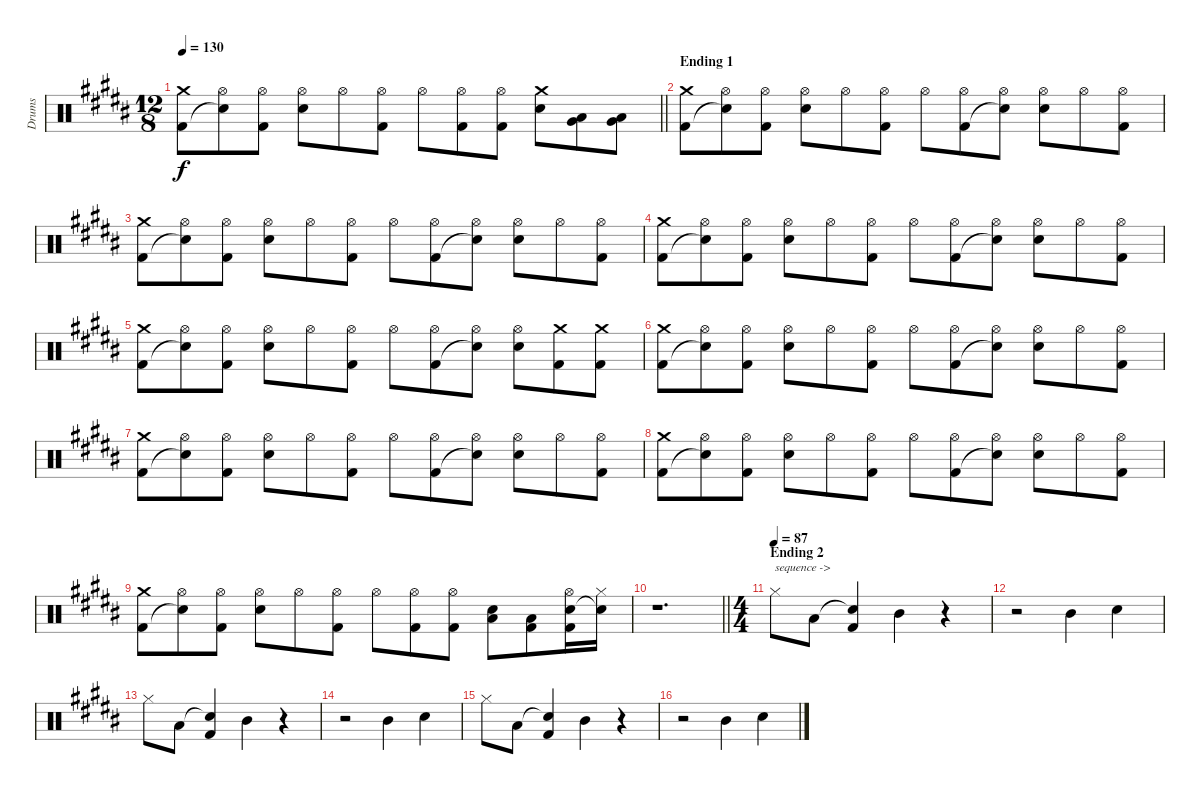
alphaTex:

\track ("Drums" "Drums") {instrument percussion}
\staff {score}
\articulation defaults
\ts (12 8)
\tempo 130
\clef neutral
\barLineRight lightlight
\ks b
("Crash medium (hit)" "Kick (hit) 2").8{dy f} ("Hi-Hat (open)" "Snare (hit)"{t}).8 ("Hi-Hat (open)" "Kick (hit) 2").8 ("Hi-Hat (open)" "Electric Snare (hit)").8 "Hi-Hat (open)".8 ("Hi-Hat (open)" "Kick (hit) 2").8 "Hi-Hat (open)".8 ("Hi-Hat (open)" "Kick (hit) 2").8 ("Hi-Hat (open)" "Kick (hit) 2").8 ("Crash medium (hit)" "Electric Snare (hit)").8 ("Very Low Tom (hit)" "Low Floor Tom (hit)").8 ("Very Low Tom (hit)" "Low Floor Tom (hit)").8 |
\section ("" "Ending 1")
("Crash medium (hit)" "Kick (hit) 2").8 ("Hi-Hat (open)" "Snare (hit)"{t}).8 ("Hi-Hat (open)" "Kick (hit) 2").8 ("Hi-Hat (open)" "Electric Snare (hit)").8 "Hi-Hat (open)".8 ("Hi-Hat (open)" "Kick (hit) 2").8 "Hi-Hat (open)".8 ("Hi-Hat (open)" "Kick (hit) 2").8 ("Hi-Hat (open)" "Snare (hit)"{t}).8 ("Hi-Hat (open)" "Electric Snare (hit)").8 "Hi-Hat (open)".8 ("Hi-Hat (open)" "Kick (hit) 2").8 |
("Crash medium (hit)" "Kick (hit) 2").8 ("Hi-Hat (open)" "Snare (hit)"{t}).8 ("Hi-Hat (open)" "Kick (hit) 2").8 ("Hi-Hat (open)" "Electric Snare (hit)").8 "Hi-Hat (open)".8 ("Hi-Hat (open)" "Kick (hit) 2").8 "Hi-Hat (open)".8 ("Hi-Hat (open)" "Kick (hit) 2").8 ("Hi-Hat (open)" "Snare (hit)"{t}).8 ("Hi-Hat (open)" "Electric Snare (hit)").8 "Hi-Hat (open)".8 ("Hi-Hat (open)" "Kick (hit) 2").8 |
("Crash medium (hit)" "Kick (hit) 2").8 ("Hi-Hat (open)" "Snare (hit)"{t}).8 ("Hi-Hat (open)" "Kick (hit) 2").8 ("Hi-Hat (open)" "Electric Snare (hit)").8 "Hi-Hat (open)".8 ("Hi-Hat (open)" "Kick (hit) 2").8 "Hi-Hat (open)".8 ("Hi-Hat (open)" "Kick (hit) 2").8 ("Hi-Hat (open)" "Snare (hit)"{t}).8 ("Hi-Hat (open)" "Electric Snare (hit)").8 "Hi-Hat (open)".8 ("Hi-Hat (open)" "Kick (hit) 2").8 |
("Crash medium (hit)" "Kick (hit) 2").8 ("Hi-Hat (open)" "Snare (hit)"{t}).8 ("Hi-Hat (open)" "Kick (hit) 2").8 ("Hi-Hat (open)" "Electric Snare (hit)").8 "Hi-Hat (open)".8 ("Hi-Hat (open)" "Kick (hit) 2").8 "Hi-Hat (open)".8 ("Hi-Hat (open)" "Kick (hit) 2").8 ("Hi-Hat (open)" "Snare (hit)"{t}).8 ("Hi-Hat (open)" "Electric Snare (hit)").8 ("Crash medium (hit)" "Kick (hit) 2").8 ("Crash medium (hit)" "Kick (hit) 2").8 |
("Crash medium (hit)" "Kick (hit) 2").8 ("Hi-Hat (open)" "Snare (hit)"{t}).8 ("Hi-Hat (open)" "Kick (hit) 2").8 ("Hi-Hat (open)" "Electric Snare (hit)").8 "Hi-Hat (open)".8 ("Hi-Hat (open)" "Kick (hit) 2").8 "Hi-Hat (open)".8 ("Hi-Hat (open)" "Kick (hit) 2").8 ("Hi-Hat (open)" "Snare (hit)"{t}).8 ("Hi-Hat (open)" "Electric Snare (hit)").8 "Hi-Hat (open)".8 ("Hi-Hat (open)" "Kick (hit) 2").8 |
("Crash medium (hit)" "Kick (hit) 2").8 ("Hi-Hat (open)" "Snare (hit)"{t}).8 ("Hi-Hat (open)" "Kick (hit) 2").8 ("Hi-Hat (open)" "Electric Snare (hit)").8 "Hi-Hat (open)".8 ("Hi-Hat (open)" "Kick (hit) 2").8 "Hi-Hat (open)".8 ("Hi-Hat (open)" "Kick (hit) 2").8 ("Hi-Hat (open)" "Snare (hit)"{t}).8 ("Hi-Hat (open)" "Electric Snare (hit)").8 "Hi-Hat (open)".8 ("Hi-Hat (open)" "Kick (hit) 2").8 |
("Crash medium (hit)" "Kick (hit) 2").8 ("Hi-Hat (open)" "Snare (hit)"{t}).8 ("Hi-Hat (open)" "Kick (hit) 2").8 ("Hi-Hat (open)" "Electric Snare (hit)").8 "Hi-Hat (open)".8 ("Hi-Hat (open)" "Kick (hit) 2").8 "Hi-Hat (open)".8 ("Hi-Hat (open)" "Kick (hit) 2").8 ("Hi-Hat (open)" "Snare (hit)"{t}).8 ("Hi-Hat (open)" "Electric Snare (hit)").8 "Hi-Hat (open)".8 ("Hi-Hat (open)" "Kick (hit) 2").8 |
("Crash medium (hit)" "Kick (hit) 2").8 ("Hi-Hat (open)" "Snare (hit)"{t}).8 ("Hi-Hat (open)" "Kick (hit) 2").8 ("Hi-Hat (open)" "Electric Snare (hit)").8 "Hi-Hat (open)".8 ("Hi-Hat (open)" "Kick (hit) 2").8 "Hi-Hat (open)".8 ("Hi-Hat (open)" "Kick (hit) 2").8 ("Hi-Hat (open)" "Kick (hit) 2").8 ("Electric Snare (hit)" "Low Floor Tom (hit)").8 ("Low Floor Tom (hit)" "Kick (hit) 2").8 ("Hi-Hat (open)" "Electric Snare (hit)" "Kick (hit) 2").16 ("Hi-Hat (closed)" "Snare (hit)"{t}).16 |
\barLineRight lightlight
r.1{d} |
\ts (4 4)
\section ("" "Ending 2")
\tempo (87)
"Hi-Hat (closed)".8{txt "sequence ->"} "Low Tom (hit)".8 ("Snare (hit)"{t} "Kick (hit) 2").4 "Mid Tom (hit)".4 r.4 |
r.2 "Mid Tom (hit)".4 "Electric Snare (hit)".4 |
"Hi-Hat (closed)".8 "Low Tom (hit)".8 ("Snare (hit)"{t} "Kick (hit) 2").4 "Mid Tom (hit)".4 r.4 |
r.2 "Mid Tom (hit)".4 "Electric Snare (hit)".4 |
"Hi-Hat (closed)".8 "Low Tom (hit)".8 ("Snare (hit)"{t} "Kick (hit) 2").4 "Mid Tom (hit)".4 r.4 |
r.2 "Mid Tom (hit)".4 "Electric Snare (hit)".4
